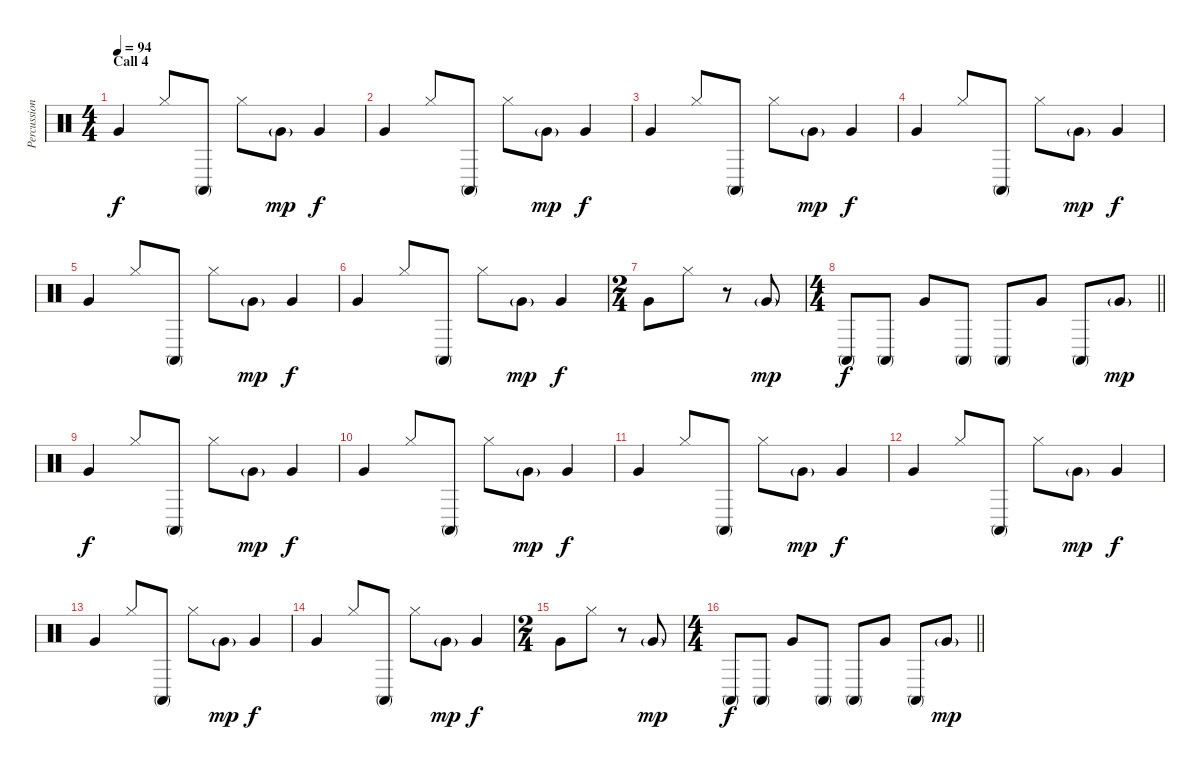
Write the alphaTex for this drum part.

\track ("Percussion" "Percussion") {instrument percussion}
\staff {score}
\articulation defaults
\ts (4 4)
\section ("" "Call 4")
\tempo 94
\clef neutral
\ks c "Very Low Tom (hit)".4{dy f} "Hi-Hat (closed)".8 "Conga high (mute)".8 "Hi-Hat (closed)".8 "Very Low Tom (hit)"{g}.8{dy mp} "Very Low Tom (hit)".4{dy f}
|
"Very Low Tom (hit)".4 "Hi-Hat (closed)".8 "Conga high (mute)".8 "Hi-Hat (closed)".8 "Very Low Tom (hit)"{g}.8{dy mp} "Very Low Tom (hit)".4{dy f} |
"Very Low Tom (hit)".4 "Hi-Hat (closed)".8 "Conga high (mute)".8 "Hi-Hat (closed)".8 "Very Low Tom (hit)"{g}.8{dy mp} "Very Low Tom (hit)".4{dy f} |
"Very Low Tom (hit)".4 "Hi-Hat (closed)".8 "Conga high (mute)".8 "Hi-Hat (closed)".8 "Very Low Tom (hit)"{g}.8{dy mp} "Very Low Tom (hit)".4{dy f} |
"Very Low Tom (hit)".4 "Hi-Hat (closed)".8 "Conga high (mute)".8 "Hi-Hat (closed)".8 "Very Low Tom (hit)"{g}.8{dy mp} "Very Low Tom (hit)".4{dy f} |
"Very Low Tom (hit)".4 "Hi-Hat (closed)".8 "Conga high (mute)".8 "Hi-Hat (closed)".8 "Very Low Tom (hit)"{g}.8{dy mp} "Very Low Tom (hit)".4{dy f} |
\ts (2 4)
"Very Low Tom (hit)".8 "Hi-Hat (closed)".8 r.8 "Very Low Tom (hit)"{g}.8{dy mp} |
\ts (4 4)
\barLineRight lightlight "Conga high (mute)".8{dy f} "Conga high (mute)".8 "Very Low Tom (hit)".8 "Conga high (mute)".8 "Conga high (mute)".8 "Very Low Tom (hit)".8 "Conga high (mute)".8 "Very Low Tom (hit)"{g}.8{dy mp}
|
"Very Low Tom (hit)".4{dy f} "Hi-Hat (closed)".8 "Conga high (mute)".8 "Hi-Hat (closed)".8 "Very Low Tom (hit)"{g}.8{dy mp} "Very Low Tom (hit)".4{dy f} |
"Very Low Tom (hit)".4 "Hi-Hat (closed)".8 "Conga high (mute)".8 "Hi-Hat (closed)".8 "Very Low Tom (hit)"{g}.8{dy mp} "Very Low Tom (hit)".4{dy f} |
"Very Low Tom (hit)".4 "Hi-Hat (closed)".8 "Conga high (mute)".8 "Hi-Hat (closed)".8 "Very Low Tom (hit)"{g}.8{dy mp} "Very Low Tom (hit)".4{dy f} |
"Very Low Tom (hit)".4 "Hi-Hat (closed)".8 "Conga high (mute)".8 "Hi-Hat (closed)".8 "Very Low Tom (hit)"{g}.8{dy mp} "Very Low Tom (hit)".4{dy f} |
"Very Low Tom (hit)".4 "Hi-Hat (closed)".8 "Conga high (mute)".8 "Hi-Hat (closed)".8 "Very Low Tom (hit)"{g}.8{dy mp} "Very Low Tom (hit)".4{dy f} |
"Very Low Tom (hit)".4 "Hi-Hat (closed)".8 "Conga high (mute)".8 "Hi-Hat (closed)".8 "Very Low Tom (hit)"{g}.8{dy mp} "Very Low Tom (hit)".4{dy f} |
\ts (2 4)
"Very Low Tom (hit)".8 "Hi-Hat (closed)".8 r.8 "Very Low Tom (hit)"{g}.8{dy mp} |
\ts (4 4)
\barLineRight lightlight "Conga high (mute)".8{dy f} "Conga high (mute)".8 "Very Low Tom (hit)".8 "Conga high (mute)".8 "Conga high (mute)".8 "Very Low Tom (hit)".8 "Conga high (mute)".8 "Very Low Tom (hit)"{g}.8{dy mp}
